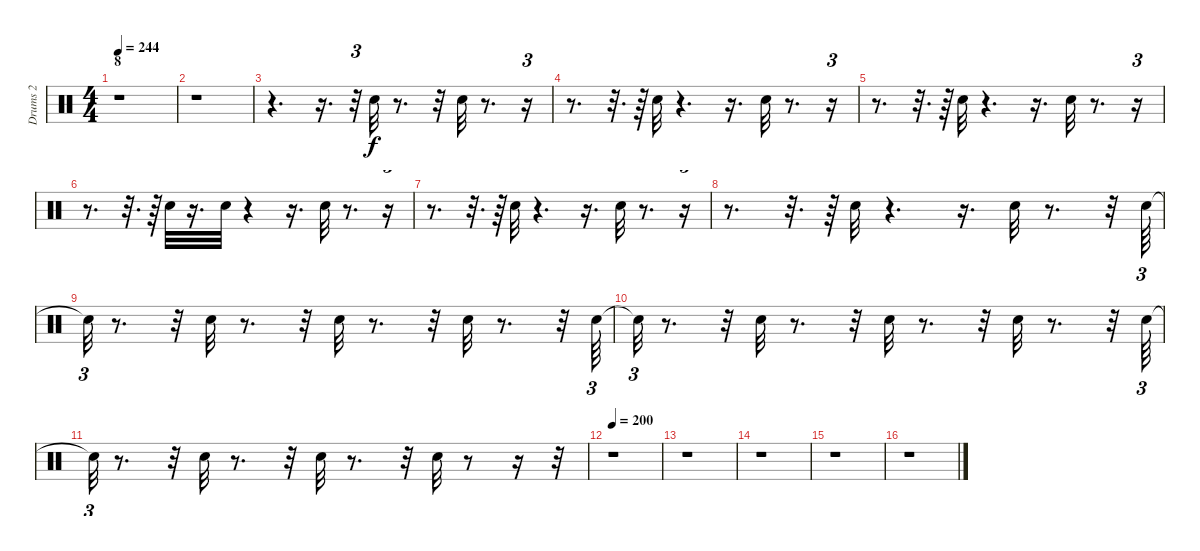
\track ("Drums 2" "Drums 2") {instrument percussion}
\staff {score}
\articulation defaults
\ts (4 4)
\section ("" "8")
\tempo 244
\clef neutral
\ks c
r.1{dy f} |
r.1 |
r.4{d} r.16{d} r.32{tu (3 2)} "Electric Snare (hit)".32 r.8{d} r.32 "Electric Snare (hit)".32 r.8{d} r.16{tu (3 2)} |
r.8{d} r.32{d} r.64 "Electric Snare (hit)".32 r.4{d} r.16{d} "Electric Snare (hit)".32 r.8{d} r.16{tu (3 2)} |
r.8{d} r.32{d} r.64 "Electric Snare (hit)".32 r.4{d} r.16{d} "Electric Snare (hit)".32 r.8{d} r.16{tu (3 2)} |
r.8{d} r.32{d} r.64 "Electric Snare (hit)".32 r.16{d} "Electric Snare (hit)".32 r.4 r.16{d} "Electric Snare (hit)".32 r.8{d} r.16{tu (3 2)} |
r.8{d} r.32{d} r.64 "Electric Snare (hit)".32 r.4{d} r.16{d} "Electric Snare (hit)".32 r.8{d} r.16{tu (3 2)} |
r.8{d} r.32{d} r.64 "Electric Snare (hit)".32 r.4{d} r.16{d} "Electric Snare (hit)".32 r.8{d} r.32 "Electric Snare (hit)".64{tu (3 2)} |
"Snare (hit)"{t}.32{tu (3 2)} r.8{d} r.32 "Electric Snare (hit)".32 r.8{d} r.32 "Electric Snare (hit)".32 r.8{d} r.32 "Electric Snare (hit)".32 r.8{d} r.32 "Electric Snare (hit)".64{tu (3 2)} |
"Snare (hit)"{t}.32{tu (3 2)} r.8{d} r.32 "Electric Snare (hit)".32 r.8{d} r.32 "Electric Snare (hit)".32 r.8{d} r.32 "Electric Snare (hit)".32 r.8{d} r.32 "Electric Snare (hit)".64{tu (3 2)} |
"Snare (hit)"{t}.32{tu (3 2)} r.8{d} r.32 "Electric Snare (hit)".32 r.8{d} r.32 "Electric Snare (hit)".32 r.8{d} r.32 "Electric Snare (hit)".32 r.8 r.16 r.32 |
\tempo 200
r.1 |
r.1 |
r.1 |
r.1 |
r.1
